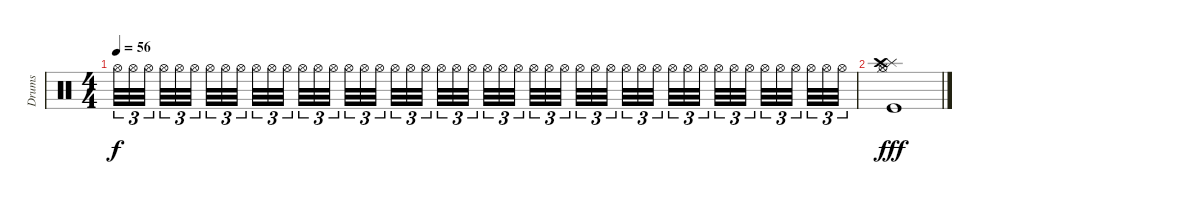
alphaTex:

\track ("Drums" "Drums") {instrument percussion}
\staff {score}
\articulation defaults
\ts (4 4)
\tempo 56
\clef neutral
\ks c "Hi-Hat (open)".32{tu (3 2) dy f} "Hi-Hat (open)".32{tu (3 2)} "Hi-Hat (open)".32{tu (3 2)} "Hi-Hat (open)".32{tu (3 2)} "Hi-Hat (open)".32{tu (3 2)} "Hi-Hat (open)".32{tu (3 2)} "Hi-Hat (open)".32{tu (3 2)} "Hi-Hat (open)".32{tu (3 2)} "Hi-Hat (open)".32{tu (3 2)} "Hi-Hat (open)".32{tu (3 2)} "Hi-Hat (open)".32{tu (3 2)} "Hi-Hat (open)".32{tu (3 2)} "Hi-Hat (open)".32{tu (3 2) volume 1} "Hi-Hat (open)".32{tu (3 2)} "Hi-Hat (open)".32{tu (3 2)} "Hi-Hat (open)".32{tu (3 2)} "Hi-Hat (open)".32{tu (3 2)} "Hi-Hat (open)".32{tu (3 2)} "Hi-Hat (open)".32{tu (3 2)} "Hi-Hat (open)".32{tu (3 2)} "Hi-Hat (open)".32{tu (3 2)} "Hi-Hat (open)".32{tu (3 2)} "Hi-Hat (open)".32{tu (3 2)} "Hi-Hat (open)".32{tu (3 2)} "Hi-Hat (open)".32{tu (3 2)} "Hi-Hat (open)".32{tu (3 2)} "Hi-Hat (open)".32{tu (3 2)} "Hi-Hat (open)".32{tu (3 2)} "Hi-Hat (open)".32{tu (3 2)} "Hi-Hat (open)".32{tu (3 2)} "Hi-Hat (open)".32{tu (3 2)} "Hi-Hat (open)".32{tu (3 2)} "Hi-Hat (open)".32{tu (3 2)} "Hi-Hat (open)".32{tu (3 2)} "Hi-Hat (open)".32{tu (3 2)} "Hi-Hat (open)".32{tu (3 2)} "Hi-Hat (open)".32{tu (3 2)} "Hi-Hat (open)".32{tu (3 2)} "Hi-Hat (open)".32{tu (3 2)} "Hi-Hat (open)".32{tu (3 2)} "Hi-Hat (open)".32{tu (3 2)} "Hi-Hat (open)".32{tu (3 2)} "Hi-Hat (open)".32{tu (3 2)} "Hi-Hat (open)".32{tu (3 2)} "Hi-Hat (open)".32{tu (3 2)} "Hi-Hat (open)".32{tu (3 2)} "Hi-Hat (open)".32{tu (3 2)} "Hi-Hat (open)".32{tu (3 2)}
|
("Hi-Hat (closed)" "Hi-Hat (open)" "Splash (hit)" "Crash high (hit)" "Kick (hit)").1{dy fff volume 13}
